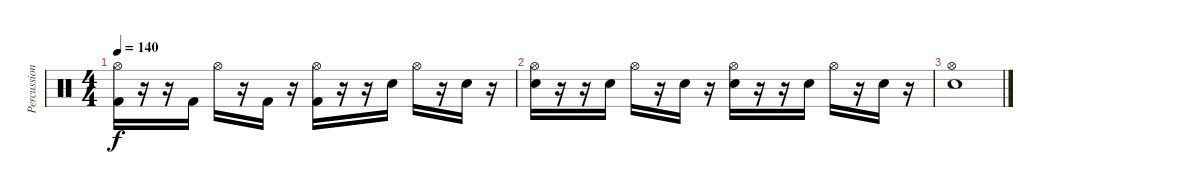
\track ("Percussion" "Percussion") {instrument percussion}
\staff {score}
\articulation defaults
\ts (4 4)
\tempo 140
\clef neutral
\ks c
("Hi-Hat (open)" "Kick (hit) 2").16{dy f} r.16 r.16 "Kick (hit) 2".16 "Hi-Hat (open)".16 r.16 "Kick (hit) 2".16 r.16 ("Hi-Hat (open)" "Kick (hit) 2").16 r.16 r.16 "Electric Snare (hit)".16 "Hi-Hat (open)".16 r.16 "Electric Snare (hit)".16 r.16 |
("Hi-Hat (open)" "Electric Snare (hit)").16 r.16 r.16 "Electric Snare (hit)".16 "Hi-Hat (open)".16 r.16 "Electric Snare (hit)".16 r.16 ("Hi-Hat (open)" "Electric Snare (hit)").16 r.16 r.16 "Electric Snare (hit)".16 "Hi-Hat (open)".16 r.16 "Electric Snare (hit)".16 r.16 |
("Hi-Hat (open)" "Electric Snare (hit)").1
